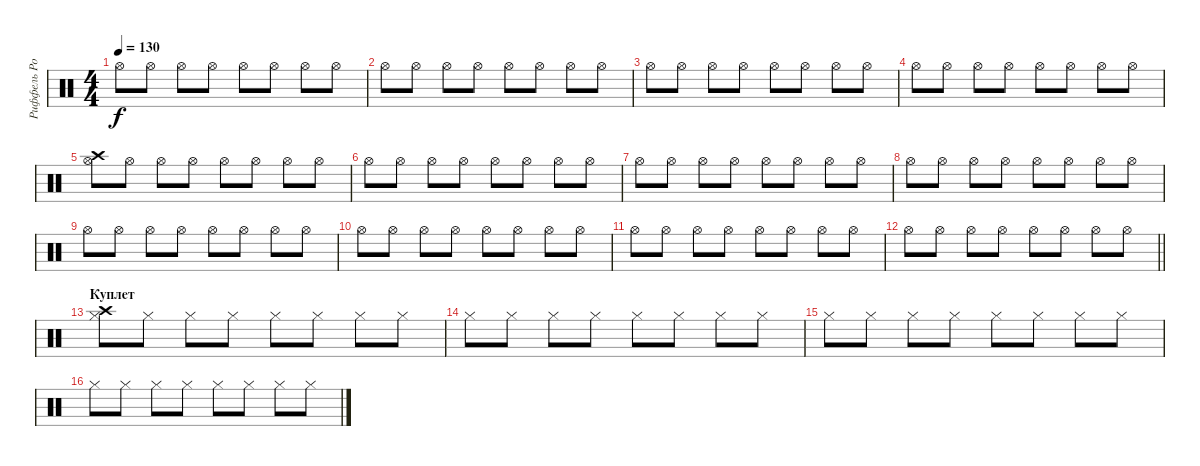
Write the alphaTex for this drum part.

\track ("Риффель Роман (хэты)" "Риффель Ро") {instrument percussion}
\staff {score}
\articulation defaults
\ts (4 4)
\tempo 130
\clef neutral
\ks c "Hi-Hat (open)".8{dy f} "Hi-Hat (open)".8 "Hi-Hat (open)".8 "Hi-Hat (open)".8 "Hi-Hat (open)".8 "Hi-Hat (open)".8 "Hi-Hat (open)".8 "Hi-Hat (open)".8
|
"Hi-Hat (open)".8 "Hi-Hat (open)".8 "Hi-Hat (open)".8 "Hi-Hat (open)".8 "Hi-Hat (open)".8 "Hi-Hat (open)".8 "Hi-Hat (open)".8 "Hi-Hat (open)".8 |
"Hi-Hat (open)".8 "Hi-Hat (open)".8 "Hi-Hat (open)".8 "Hi-Hat (open)".8 "Hi-Hat (open)".8 "Hi-Hat (open)".8 "Hi-Hat (open)".8 "Hi-Hat (open)".8 |
"Hi-Hat (open)".8 "Hi-Hat (open)".8 "Hi-Hat (open)".8 "Hi-Hat (open)".8 "Hi-Hat (open)".8 "Hi-Hat (open)".8 "Hi-Hat (open)".8 "Hi-Hat (open)".8 |
("Crash high (hit)" "Hi-Hat (open)").8 "Hi-Hat (open)".8 "Hi-Hat (open)".8 "Hi-Hat (open)".8 "Hi-Hat (open)".8 "Hi-Hat (open)".8 "Hi-Hat (open)".8 "Hi-Hat (open)".8 |
"Hi-Hat (open)".8 "Hi-Hat (open)".8 "Hi-Hat (open)".8 "Hi-Hat (open)".8 "Hi-Hat (open)".8 "Hi-Hat (open)".8 "Hi-Hat (open)".8 "Hi-Hat (open)".8 |
"Hi-Hat (open)".8 "Hi-Hat (open)".8 "Hi-Hat (open)".8 "Hi-Hat (open)".8 "Hi-Hat (open)".8 "Hi-Hat (open)".8 "Hi-Hat (open)".8 "Hi-Hat (open)".8 |
"Hi-Hat (open)".8 "Hi-Hat (open)".8 "Hi-Hat (open)".8 "Hi-Hat (open)".8 "Hi-Hat (open)".8 "Hi-Hat (open)".8 "Hi-Hat (open)".8 "Hi-Hat (open)".8 |
"Hi-Hat (open)".8 "Hi-Hat (open)".8 "Hi-Hat (open)".8 "Hi-Hat (open)".8 "Hi-Hat (open)".8 "Hi-Hat (open)".8 "Hi-Hat (open)".8 "Hi-Hat (open)".8 |
"Hi-Hat (open)".8 "Hi-Hat (open)".8 "Hi-Hat (open)".8 "Hi-Hat (open)".8 "Hi-Hat (open)".8 "Hi-Hat (open)".8 "Hi-Hat (open)".8 "Hi-Hat (open)".8 |
"Hi-Hat (open)".8 "Hi-Hat (open)".8 "Hi-Hat (open)".8 "Hi-Hat (open)".8 "Hi-Hat (open)".8 "Hi-Hat (open)".8 "Hi-Hat (open)".8 "Hi-Hat (open)".8 |
\barLineRight lightlight "Hi-Hat (open)".8 "Hi-Hat (open)".8 "Hi-Hat (open)".8 "Hi-Hat (open)".8 "Hi-Hat (open)".8 "Hi-Hat (open)".8 "Hi-Hat (open)".8 "Hi-Hat (open)".8
|
\section ("" "Куплет")
("Crash high (hit)" "Hi-Hat (closed)").8 "Hi-Hat (closed)".8 "Hi-Hat (closed)".8 "Hi-Hat (closed)".8 "Hi-Hat (closed)".8 "Hi-Hat (closed)".8 "Hi-Hat (closed)".8 "Hi-Hat (closed)".8 |
"Hi-Hat (closed)".8 "Hi-Hat (closed)".8 "Hi-Hat (closed)".8 "Hi-Hat (closed)".8 "Hi-Hat (closed)".8 "Hi-Hat (closed)".8 "Hi-Hat (closed)".8 "Hi-Hat (closed)".8 |
"Hi-Hat (closed)".8 "Hi-Hat (closed)".8 "Hi-Hat (closed)".8 "Hi-Hat (closed)".8 "Hi-Hat (closed)".8 "Hi-Hat (closed)".8 "Hi-Hat (closed)".8 "Hi-Hat (closed)".8 |
"Hi-Hat (closed)".8 "Hi-Hat (closed)".8 "Hi-Hat (closed)".8 "Hi-Hat (closed)".8 "Hi-Hat (closed)".8 "Hi-Hat (closed)".8 "Hi-Hat (closed)".8 "Hi-Hat (closed)".8
